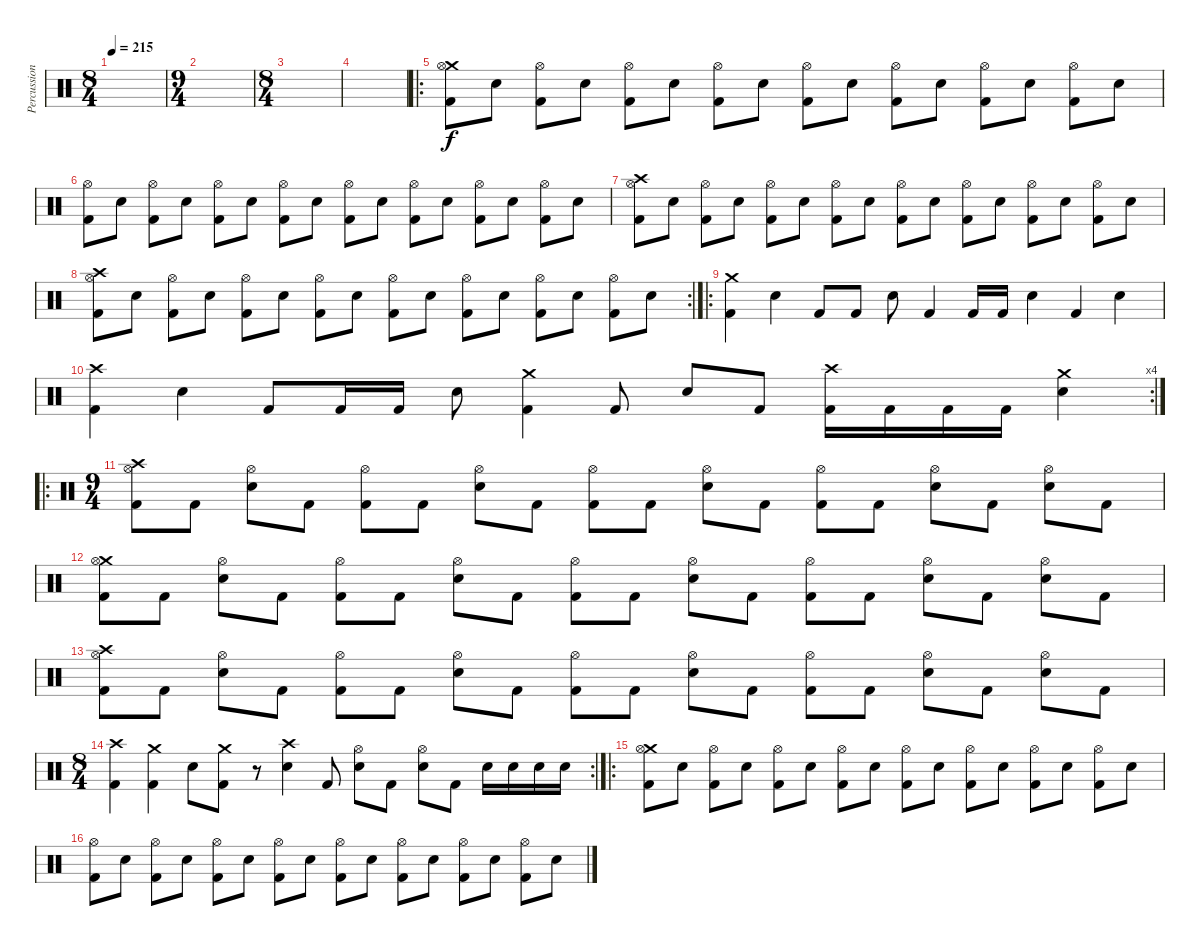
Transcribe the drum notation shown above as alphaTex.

\track ("Percussion" "Percussion") {instrument percussion}
\staff {score}
\articulation defaults
\ts (8 4)
\tempo 215
\clef neutral
\ks c
|
\ts (9 4)
|
\ts (8 4)
|
|
\ro
("Crash medium (hit)" "Hi-Hat (open)" "Kick (hit) 2").8 "Snare (hit) 2".8 ("Hi-Hat (open)" "Kick (hit) 2").8 "Snare (hit) 2".8 ("Hi-Hat (open)" "Kick (hit) 2").8 "Snare (hit) 2".8 ("Hi-Hat (open)" "Kick (hit) 2").8 "Snare (hit) 2".8 ("Hi-Hat (open)" "Kick (hit) 2").8 "Snare (hit) 2".8 ("Hi-Hat (open)" "Kick (hit) 2").8 "Snare (hit) 2".8 ("Hi-Hat (open)" "Kick (hit) 2").8 "Snare (hit) 2".8 ("Hi-Hat (open)" "Kick (hit) 2").8 "Snare (hit) 2".8 |
("Hi-Hat (open)" "Kick (hit) 2").8 "Snare (hit) 2".8 ("Hi-Hat (open)" "Kick (hit) 2").8 "Snare (hit) 2".8 ("Hi-Hat (open)" "Kick (hit) 2").8 "Snare (hit) 2".8 ("Hi-Hat (open)" "Kick (hit) 2").8 "Snare (hit) 2".8 ("Hi-Hat (open)" "Kick (hit) 2").8 "Snare (hit) 2".8 ("Hi-Hat (open)" "Kick (hit) 2").8 "Snare (hit) 2".8 ("Hi-Hat (open)" "Kick (hit) 2").8 "Snare (hit) 2".8 ("Hi-Hat (open)" "Kick (hit) 2").8 "Snare (hit) 2".8 |
("Crash high (hit)" "Hi-Hat (open)" "Kick (hit) 2").8 "Snare (hit) 2".8 ("Hi-Hat (open)" "Kick (hit) 2").8 "Snare (hit) 2".8 ("Hi-Hat (open)" "Kick (hit) 2").8 "Snare (hit) 2".8 ("Hi-Hat (open)" "Kick (hit) 2").8 "Snare (hit) 2".8 ("Hi-Hat (open)" "Kick (hit) 2").8 "Snare (hit) 2".8 ("Hi-Hat (open)" "Kick (hit) 2").8 "Snare (hit) 2".8 ("Hi-Hat (open)" "Kick (hit) 2").8 "Snare (hit) 2".8 ("Hi-Hat (open)" "Kick (hit) 2").8 "Snare (hit) 2".8 |
\rc 2
("Crash high (hit)" "Hi-Hat (open)" "Kick (hit) 2").8 "Snare (hit) 2".8 ("Hi-Hat (open)" "Kick (hit) 2").8 "Snare (hit) 2".8 ("Hi-Hat (open)" "Kick (hit) 2").8 "Snare (hit) 2".8 ("Hi-Hat (open)" "Kick (hit) 2").8 "Snare (hit) 2".8 ("Hi-Hat (open)" "Kick (hit) 2").8 "Snare (hit) 2".8 ("Hi-Hat (open)" "Kick (hit) 2").8 "Snare (hit) 2".8 ("Hi-Hat (open)" "Kick (hit) 2").8 "Snare (hit) 2".8 ("Hi-Hat (open)" "Kick (hit) 2").8 "Snare (hit) 2".8 |
\ro
("Crash medium (hit)" "Kick (hit) 2").4 "Snare (hit) 2".4 "Kick (hit) 2".8 "Kick (hit) 2".8 "Snare (hit) 2".8 "Kick (hit) 2".4 "Kick (hit) 2".16 "Kick (hit) 2".16 "Snare (hit) 2".4 "Kick (hit) 2".4 "Snare (hit) 2".4 |
\rc 4
("Crash high (hit)" "Kick (hit) 2").4 "Snare (hit) 2".4 "Kick (hit) 2".8 "Kick (hit) 2".16 "Kick (hit) 2".16 "Snare (hit) 2".8 ("Crash medium (hit)" "Kick (hit) 2").4 "Kick (hit) 2".8 "Snare (hit) 2".8 "Kick (hit) 2".8 ("Crash high (hit)" "Kick (hit) 2").16 "Kick (hit) 2".16 "Kick (hit) 2".16 "Kick (hit) 2".16 ("Crash medium (hit)" "Snare (hit) 2").4 |
\ro
\ts (9 4)
("Crash high (hit)" "Hi-Hat (open)" "Kick (hit) 2").8 "Kick (hit) 2".8 ("Hi-Hat (open)" "Snare (hit) 2").8 "Kick (hit) 2".8 ("Hi-Hat (open)" "Kick (hit) 2").8 "Kick (hit) 2".8 ("Hi-Hat (open)" "Snare (hit) 2").8 "Kick (hit) 2".8 ("Hi-Hat (open)" "Kick (hit) 2").8 "Kick (hit) 2".8 ("Hi-Hat (open)" "Snare (hit) 2").8 "Kick (hit) 2".8 ("Hi-Hat (open)" "Kick (hit) 2").8 "Kick (hit) 2".8 ("Hi-Hat (open)" "Snare (hit) 2").8 "Kick (hit) 2".8 ("Hi-Hat (open)" "Snare (hit) 2").8 "Kick (hit) 2".8 |
("Crash medium (hit)" "Hi-Hat (open)" "Kick (hit) 2").8 "Kick (hit) 2".8 ("Hi-Hat (open)" "Snare (hit) 2").8 "Kick (hit) 2".8 ("Hi-Hat (open)" "Kick (hit) 2").8 "Kick (hit) 2".8 ("Hi-Hat (open)" "Snare (hit) 2").8 "Kick (hit) 2".8 ("Hi-Hat (open)" "Kick (hit) 2").8 "Kick (hit) 2".8 ("Hi-Hat (open)" "Snare (hit) 2").8 "Kick (hit) 2".8 ("Hi-Hat (open)" "Kick (hit) 2").8 "Kick (hit) 2".8 ("Hi-Hat (open)" "Snare (hit) 2").8 "Kick (hit) 2".8 ("Hi-Hat (open)" "Snare (hit) 2").8 "Kick (hit) 2".8 |
("Crash high (hit)" "Hi-Hat (open)" "Kick (hit) 2").8 "Kick (hit) 2".8 ("Hi-Hat (open)" "Snare (hit) 2").8 "Kick (hit) 2".8 ("Hi-Hat (open)" "Kick (hit) 2").8 "Kick (hit) 2".8 ("Hi-Hat (open)" "Snare (hit) 2").8 "Kick (hit) 2".8 ("Hi-Hat (open)" "Kick (hit) 2").8 "Kick (hit) 2".8 ("Hi-Hat (open)" "Snare (hit) 2").8 "Kick (hit) 2".8 ("Hi-Hat (open)" "Kick (hit) 2").8 "Kick (hit) 2".8 ("Hi-Hat (open)" "Snare (hit) 2").8 "Kick (hit) 2".8 ("Hi-Hat (open)" "Snare (hit) 2").8 "Kick (hit) 2".8 |
\rc 2
\ts (8 4)
("Crash high (hit)" "Kick (hit) 2").4 ("Crash medium (hit)" "Kick (hit) 2").4 "Snare (hit) 2".8 ("Crash medium (hit)" "Kick (hit) 2").8 r.8 ("Crash high (hit)" "Snare (hit) 2").4 "Kick (hit) 2".8 ("Hi-Hat (open)" "Snare (hit) 2").8 "Kick (hit) 2".8 ("Hi-Hat (open)" "Snare (hit) 2").8 "Kick (hit) 2".8 "Snare (hit) 2".16 "Snare (hit) 2".16 "Snare (hit) 2".16 "Snare (hit) 2".16 |
\ro
("Crash medium (hit)" "Hi-Hat (open)" "Kick (hit) 2").8 "Snare (hit) 2".8 ("Hi-Hat (open)" "Kick (hit) 2").8 "Snare (hit) 2".8 ("Hi-Hat (open)" "Kick (hit) 2").8 "Snare (hit) 2".8 ("Hi-Hat (open)" "Kick (hit) 2").8 "Snare (hit) 2".8 ("Hi-Hat (open)" "Kick (hit) 2").8 "Snare (hit) 2".8 ("Hi-Hat (open)" "Kick (hit) 2").8 "Snare (hit) 2".8 ("Hi-Hat (open)" "Kick (hit) 2").8 "Snare (hit) 2".8 ("Hi-Hat (open)" "Kick (hit) 2").8 "Snare (hit) 2".8 |
("Hi-Hat (open)" "Kick (hit) 2").8 "Snare (hit) 2".8 ("Hi-Hat (open)" "Kick (hit) 2").8 "Snare (hit) 2".8 ("Hi-Hat (open)" "Kick (hit) 2").8 "Snare (hit) 2".8 ("Hi-Hat (open)" "Kick (hit) 2").8 "Snare (hit) 2".8 ("Hi-Hat (open)" "Kick (hit) 2").8 "Snare (hit) 2".8 ("Hi-Hat (open)" "Kick (hit) 2").8 "Snare (hit) 2".8 ("Hi-Hat (open)" "Kick (hit) 2").8 "Snare (hit) 2".8 ("Hi-Hat (open)" "Kick (hit) 2").8 "Snare (hit) 2".8
